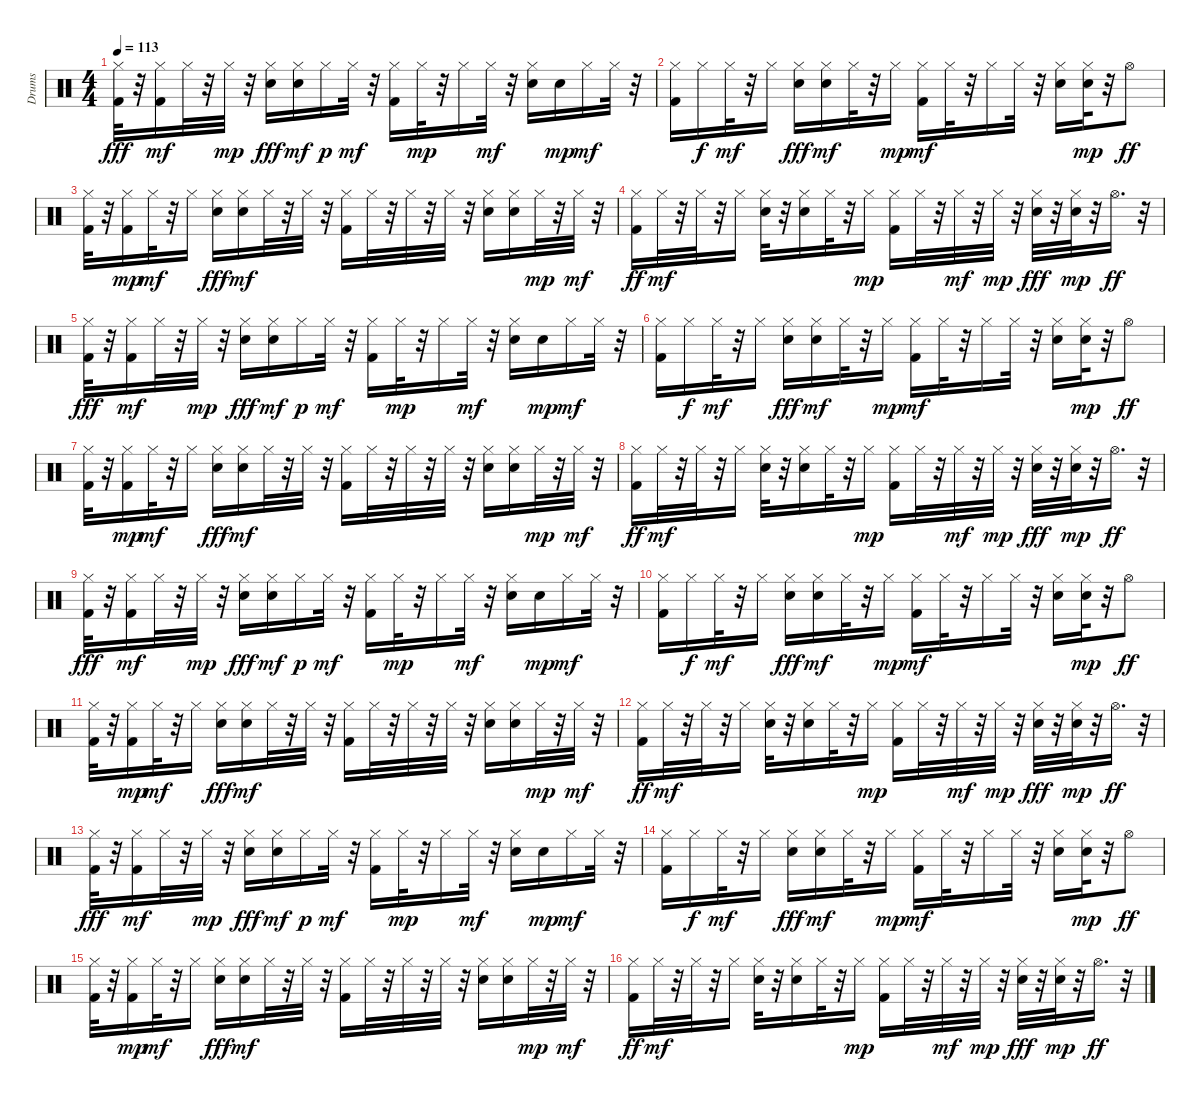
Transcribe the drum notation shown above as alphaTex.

\track ("Drums" "Drums") {instrument percussion}
\staff {score}
\articulation defaults
\ts (4 4)
\tempo 113
\clef neutral
\ks c
("Kick (hit) 2" "Hi-Hat (closed)").32{dy fff} r.32 ("Kick (hit) 2" "Hi-Hat (closed)").16{dy mf} "Hi-Hat (closed)".32 r.32 "Hi-Hat (closed)".32{dy mp} r.32 ("Electric Snare (hit)" "Hi-Hat (closed)").16{dy fff} ("Electric Snare (hit)" "Hi-Hat (closed)").16{dy mf} "Hi-Hat (closed)".16{dy p} "Hi-Hat (closed)".32{dy mf} r.32 ("Kick (hit) 2" "Hi-Hat (closed)").16 "Hi-Hat (closed)".32{dy mp} r.32 "Hi-Hat (closed)".16 "Hi-Hat (closed)".32{dy mf} r.32 ("Electric Snare (hit)" "Hi-Hat (closed)").16 "Electric Snare (hit)".16{dy mp} "Hi-Hat (closed)".16{dy mf} "Hi-Hat (closed)".32 r.32 |
("Kick (hit) 2" "Hi-Hat (closed)").16 "Hi-Hat (closed)".16{dy f} "Hi-Hat (closed)".32{dy mf} r.32 "Hi-Hat (closed)".16 ("Electric Snare (hit)" "Hi-Hat (closed)").16{dy fff} ("Electric Snare (hit)" "Hi-Hat (closed)").16{dy mf} "Hi-Hat (closed)".32 r.32 "Hi-Hat (closed)".16{dy mp} ("Kick (hit) 2" "Hi-Hat (closed)").16{dy mf} "Hi-Hat (closed)".32 r.32 "Hi-Hat (closed)".16 "Hi-Hat (closed)".32 r.32 ("Electric Snare (hit)" "Hi-Hat (closed)").16 ("Electric Snare (hit)" "Hi-Hat (closed)").32{dy mp} r.32 "Hi-Hat (open)".8{dy ff} |
("Kick (hit) 2" "Hi-Hat (closed)").32 r.32 ("Kick (hit) 2" "Hi-Hat (closed)").16{dy mp} "Hi-Hat (closed)".32{dy mf} r.32 "Hi-Hat (closed)".16 ("Electric Snare (hit)" "Hi-Hat (closed)").16{dy fff} ("Electric Snare (hit)" "Hi-Hat (closed)").16{dy mf} "Hi-Hat (closed)".32 r.32 "Hi-Hat (closed)".32 r.32 ("Kick (hit) 2" "Hi-Hat (closed)").16 "Hi-Hat (closed)".32 r.32 "Hi-Hat (closed)".32 r.32 "Hi-Hat (closed)".32 r.32 ("Electric Snare (hit)" "Hi-Hat (closed)").16 ("Electric Snare (hit)" "Hi-Hat (closed)").16 "Hi-Hat (closed)".32{dy mp} r.32 "Hi-Hat (closed)".32{dy mf} r.32 |
("Kick (hit) 2" "Hi-Hat (closed)").16{dy ff} "Hi-Hat (closed)".32{dy mf} r.32 "Hi-Hat (closed)".32 r.32 "Hi-Hat (closed)".16 ("Electric Snare (hit)" "Hi-Hat (closed)").32 r.32 ("Electric Snare (hit)" "Hi-Hat (closed)").16 "Hi-Hat (closed)".32 r.32 "Hi-Hat (closed)".16{dy mp} ("Kick (hit) 2" "Hi-Hat (closed)").16 "Hi-Hat (closed)".32 r.32 "Hi-Hat (closed)".32{dy mf} r.32 "Hi-Hat (closed)".32{dy mp} r.32 ("Electric Snare (hit)" "Hi-Hat (closed)").32{dy fff} r.32 ("Electric Snare (hit)" "Hi-Hat (closed)").32{dy mp} r.32 "Hi-Hat (open)".16{d dy ff} r.32 |
("Kick (hit) 2" "Hi-Hat (closed)").32{dy fff} r.32 ("Kick (hit) 2" "Hi-Hat (closed)").16{dy mf} "Hi-Hat (closed)".32 r.32 "Hi-Hat (closed)".32{dy mp} r.32 ("Electric Snare (hit)" "Hi-Hat (closed)").16{dy fff} ("Electric Snare (hit)" "Hi-Hat (closed)").16{dy mf} "Hi-Hat (closed)".16{dy p} "Hi-Hat (closed)".32{dy mf} r.32 ("Kick (hit) 2" "Hi-Hat (closed)").16 "Hi-Hat (closed)".32{dy mp} r.32 "Hi-Hat (closed)".16 "Hi-Hat (closed)".32{dy mf} r.32 ("Electric Snare (hit)" "Hi-Hat (closed)").16 "Electric Snare (hit)".16{dy mp} "Hi-Hat (closed)".16{dy mf} "Hi-Hat (closed)".32 r.32 |
("Kick (hit) 2" "Hi-Hat (closed)").16 "Hi-Hat (closed)".16{dy f} "Hi-Hat (closed)".32{dy mf} r.32 "Hi-Hat (closed)".16 ("Electric Snare (hit)" "Hi-Hat (closed)").16{dy fff} ("Electric Snare (hit)" "Hi-Hat (closed)").16{dy mf} "Hi-Hat (closed)".32 r.32 "Hi-Hat (closed)".16{dy mp} ("Kick (hit) 2" "Hi-Hat (closed)").16{dy mf} "Hi-Hat (closed)".32 r.32 "Hi-Hat (closed)".16 "Hi-Hat (closed)".32 r.32 ("Electric Snare (hit)" "Hi-Hat (closed)").16 ("Electric Snare (hit)" "Hi-Hat (closed)").32{dy mp} r.32 "Hi-Hat (open)".8{dy ff} |
("Kick (hit) 2" "Hi-Hat (closed)").32 r.32 ("Kick (hit) 2" "Hi-Hat (closed)").16{dy mp} "Hi-Hat (closed)".32{dy mf} r.32 "Hi-Hat (closed)".16 ("Electric Snare (hit)" "Hi-Hat (closed)").16{dy fff} ("Electric Snare (hit)" "Hi-Hat (closed)").16{dy mf} "Hi-Hat (closed)".32 r.32 "Hi-Hat (closed)".32 r.32 ("Kick (hit) 2" "Hi-Hat (closed)").16 "Hi-Hat (closed)".32 r.32 "Hi-Hat (closed)".32 r.32 "Hi-Hat (closed)".32 r.32 ("Electric Snare (hit)" "Hi-Hat (closed)").16 ("Electric Snare (hit)" "Hi-Hat (closed)").16 "Hi-Hat (closed)".32{dy mp} r.32 "Hi-Hat (closed)".32{dy mf} r.32 |
("Kick (hit) 2" "Hi-Hat (closed)").16{dy ff} "Hi-Hat (closed)".32{dy mf} r.32 "Hi-Hat (closed)".32 r.32 "Hi-Hat (closed)".16 ("Electric Snare (hit)" "Hi-Hat (closed)").32 r.32 ("Electric Snare (hit)" "Hi-Hat (closed)").16 "Hi-Hat (closed)".32 r.32 "Hi-Hat (closed)".16{dy mp} ("Kick (hit) 2" "Hi-Hat (closed)").16 "Hi-Hat (closed)".32 r.32 "Hi-Hat (closed)".32{dy mf} r.32 "Hi-Hat (closed)".32{dy mp} r.32 ("Electric Snare (hit)" "Hi-Hat (closed)").32{dy fff} r.32 ("Electric Snare (hit)" "Hi-Hat (closed)").32{dy mp} r.32 "Hi-Hat (open)".16{d dy ff} r.32 |
("Kick (hit) 2" "Hi-Hat (closed)").32{dy fff} r.32 ("Kick (hit) 2" "Hi-Hat (closed)").16{dy mf} "Hi-Hat (closed)".32 r.32 "Hi-Hat (closed)".32{dy mp} r.32 ("Electric Snare (hit)" "Hi-Hat (closed)").16{dy fff} ("Electric Snare (hit)" "Hi-Hat (closed)").16{dy mf} "Hi-Hat (closed)".16{dy p} "Hi-Hat (closed)".32{dy mf} r.32 ("Kick (hit) 2" "Hi-Hat (closed)").16 "Hi-Hat (closed)".32{dy mp} r.32 "Hi-Hat (closed)".16 "Hi-Hat (closed)".32{dy mf} r.32 ("Electric Snare (hit)" "Hi-Hat (closed)").16 "Electric Snare (hit)".16{dy mp} "Hi-Hat (closed)".16{dy mf} "Hi-Hat (closed)".32 r.32 |
("Kick (hit) 2" "Hi-Hat (closed)").16 "Hi-Hat (closed)".16{dy f} "Hi-Hat (closed)".32{dy mf} r.32 "Hi-Hat (closed)".16 ("Electric Snare (hit)" "Hi-Hat (closed)").16{dy fff} ("Electric Snare (hit)" "Hi-Hat (closed)").16{dy mf} "Hi-Hat (closed)".32 r.32 "Hi-Hat (closed)".16{dy mp} ("Kick (hit) 2" "Hi-Hat (closed)").16{dy mf} "Hi-Hat (closed)".32 r.32 "Hi-Hat (closed)".16 "Hi-Hat (closed)".32 r.32 ("Electric Snare (hit)" "Hi-Hat (closed)").16 ("Electric Snare (hit)" "Hi-Hat (closed)").32{dy mp} r.32 "Hi-Hat (open)".8{dy ff} |
("Kick (hit) 2" "Hi-Hat (closed)").32 r.32 ("Kick (hit) 2" "Hi-Hat (closed)").16{dy mp} "Hi-Hat (closed)".32{dy mf} r.32 "Hi-Hat (closed)".16 ("Electric Snare (hit)" "Hi-Hat (closed)").16{dy fff} ("Electric Snare (hit)" "Hi-Hat (closed)").16{dy mf} "Hi-Hat (closed)".32 r.32 "Hi-Hat (closed)".32 r.32 ("Kick (hit) 2" "Hi-Hat (closed)").16 "Hi-Hat (closed)".32 r.32 "Hi-Hat (closed)".32 r.32 "Hi-Hat (closed)".32 r.32 ("Electric Snare (hit)" "Hi-Hat (closed)").16 ("Electric Snare (hit)" "Hi-Hat (closed)").16 "Hi-Hat (closed)".32{dy mp} r.32 "Hi-Hat (closed)".32{dy mf} r.32 |
("Kick (hit) 2" "Hi-Hat (closed)").16{dy ff} "Hi-Hat (closed)".32{dy mf} r.32 "Hi-Hat (closed)".32 r.32 "Hi-Hat (closed)".16 ("Electric Snare (hit)" "Hi-Hat (closed)").32 r.32 ("Electric Snare (hit)" "Hi-Hat (closed)").16 "Hi-Hat (closed)".32 r.32 "Hi-Hat (closed)".16{dy mp} ("Kick (hit) 2" "Hi-Hat (closed)").16 "Hi-Hat (closed)".32 r.32 "Hi-Hat (closed)".32{dy mf} r.32 "Hi-Hat (closed)".32{dy mp} r.32 ("Electric Snare (hit)" "Hi-Hat (closed)").32{dy fff} r.32 ("Electric Snare (hit)" "Hi-Hat (closed)").32{dy mp} r.32 "Hi-Hat (open)".16{d dy ff} r.32 |
("Kick (hit) 2" "Hi-Hat (closed)").32{dy fff} r.32 ("Kick (hit) 2" "Hi-Hat (closed)").16{dy mf} "Hi-Hat (closed)".32 r.32 "Hi-Hat (closed)".32{dy mp} r.32 ("Electric Snare (hit)" "Hi-Hat (closed)").16{dy fff} ("Electric Snare (hit)" "Hi-Hat (closed)").16{dy mf} "Hi-Hat (closed)".16{dy p} "Hi-Hat (closed)".32{dy mf} r.32 ("Kick (hit) 2" "Hi-Hat (closed)").16 "Hi-Hat (closed)".32{dy mp} r.32 "Hi-Hat (closed)".16 "Hi-Hat (closed)".32{dy mf} r.32 ("Electric Snare (hit)" "Hi-Hat (closed)").16 "Electric Snare (hit)".16{dy mp} "Hi-Hat (closed)".16{dy mf} "Hi-Hat (closed)".32 r.32 |
("Kick (hit) 2" "Hi-Hat (closed)").16 "Hi-Hat (closed)".16{dy f} "Hi-Hat (closed)".32{dy mf} r.32 "Hi-Hat (closed)".16 ("Electric Snare (hit)" "Hi-Hat (closed)").16{dy fff} ("Electric Snare (hit)" "Hi-Hat (closed)").16{dy mf} "Hi-Hat (closed)".32 r.32 "Hi-Hat (closed)".16{dy mp} ("Kick (hit) 2" "Hi-Hat (closed)").16{dy mf} "Hi-Hat (closed)".32 r.32 "Hi-Hat (closed)".16 "Hi-Hat (closed)".32 r.32 ("Electric Snare (hit)" "Hi-Hat (closed)").16 ("Electric Snare (hit)" "Hi-Hat (closed)").32{dy mp} r.32 "Hi-Hat (open)".8{dy ff} |
("Kick (hit) 2" "Hi-Hat (closed)").32 r.32 ("Kick (hit) 2" "Hi-Hat (closed)").16{dy mp} "Hi-Hat (closed)".32{dy mf} r.32 "Hi-Hat (closed)".16 ("Electric Snare (hit)" "Hi-Hat (closed)").16{dy fff} ("Electric Snare (hit)" "Hi-Hat (closed)").16{dy mf} "Hi-Hat (closed)".32 r.32 "Hi-Hat (closed)".32 r.32 ("Kick (hit) 2" "Hi-Hat (closed)").16 "Hi-Hat (closed)".32 r.32 "Hi-Hat (closed)".32 r.32 "Hi-Hat (closed)".32 r.32 ("Electric Snare (hit)" "Hi-Hat (closed)").16 ("Electric Snare (hit)" "Hi-Hat (closed)").16 "Hi-Hat (closed)".32{dy mp} r.32 "Hi-Hat (closed)".32{dy mf} r.32 |
("Kick (hit) 2" "Hi-Hat (closed)").16{dy ff} "Hi-Hat (closed)".32{dy mf} r.32 "Hi-Hat (closed)".32 r.32 "Hi-Hat (closed)".16 ("Electric Snare (hit)" "Hi-Hat (closed)").32 r.32 ("Electric Snare (hit)" "Hi-Hat (closed)").16 "Hi-Hat (closed)".32 r.32 "Hi-Hat (closed)".16{dy mp} ("Kick (hit) 2" "Hi-Hat (closed)").16 "Hi-Hat (closed)".32 r.32 "Hi-Hat (closed)".32{dy mf} r.32 "Hi-Hat (closed)".32{dy mp} r.32 ("Electric Snare (hit)" "Hi-Hat (closed)").32{dy fff} r.32 ("Electric Snare (hit)" "Hi-Hat (closed)").32{dy mp} r.32 "Hi-Hat (open)".16{d dy ff} r.32
